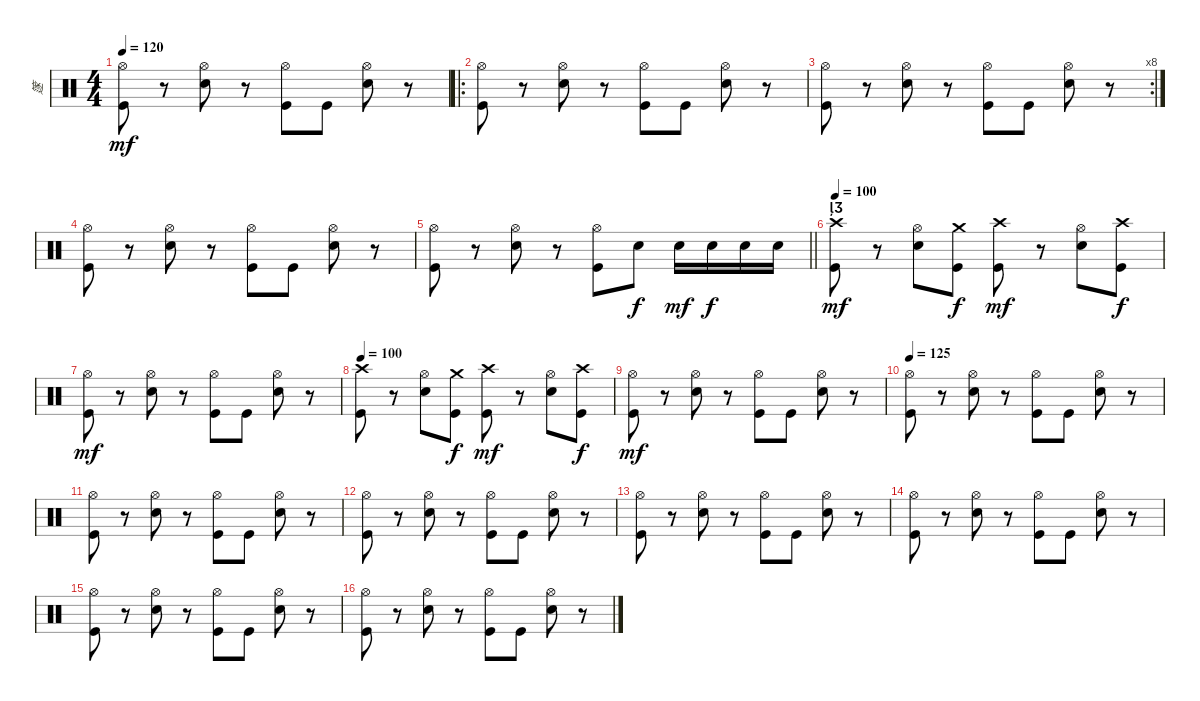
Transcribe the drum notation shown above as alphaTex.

\track ("篴" "篴") {instrument percussion}
\staff {score}
\articulation defaults
\ts (4 4)
\tempo 120
\clef neutral
\ks c
("Hi-Hat (open)" "Kick (hit)").8{dy mf} r.8 ("Hi-Hat (open)" "Snare (hit) 2").8 r.8 ("Hi-Hat (open)" "Kick (hit)").8 "Kick (hit)".8 ("Hi-Hat (open)" "Snare (hit) 2").8 r.8 |
\ro
("Hi-Hat (open)" "Kick (hit)").8 r.8 ("Hi-Hat (open)" "Snare (hit) 2").8 r.8 ("Hi-Hat (open)" "Kick (hit)").8 "Kick (hit)".8 ("Hi-Hat (open)" "Snare (hit) 2").8 r.8 |
\rc 8
("Hi-Hat (open)" "Kick (hit)").8 r.8 ("Hi-Hat (open)" "Snare (hit) 2").8 r.8 ("Hi-Hat (open)" "Kick (hit)").8 "Kick (hit)".8 ("Hi-Hat (open)" "Snare (hit) 2").8 r.8 |
("Hi-Hat (open)" "Kick (hit)").8 r.8 ("Hi-Hat (open)" "Snare (hit) 2").8 r.8 ("Hi-Hat (open)" "Kick (hit)").8 "Kick (hit)".8 ("Hi-Hat (open)" "Snare (hit) 2").8 r.8 |
\barLineRight lightlight
("Hi-Hat (open)" "Kick (hit)").8 r.8 ("Hi-Hat (open)" "Snare (hit) 2").8 r.8 ("Hi-Hat (open)" "Kick (hit)").8 "Snare (hit) 2".8{dy f} "Snare (hit) 2".16{dy mf} "Snare (hit) 2".16{dy f} "Snare (hit) 2".16 "Snare (hit) 2".16 |
\section ("" "")
\tempo 80
\tempo 100
("Crash high (hit)" "Kick (hit)").8{dy mf} r.8 ("Hi-Hat (open)" "Snare (hit) 2").8 ("Crash medium (hit)" "Kick (hit)").8{dy f} ("Crash high (hit)" "Kick (hit)").8{dy mf} r.8 ("Hi-Hat (open)" "Snare (hit) 2").8 ("Crash high (hit)" "Kick (hit)").8{dy f} |
("Hi-Hat (open)" "Kick (hit)").8{dy mf} r.8 ("Hi-Hat (open)" "Snare (hit) 2").8 r.8 ("Hi-Hat (open)" "Kick (hit)").8 "Kick (hit)".8 ("Hi-Hat (open)" "Snare (hit) 2").8 r.8 |
\tempo 80
\tempo 100
("Crash high (hit)" "Kick (hit)").8 r.8 ("Hi-Hat (open)" "Snare (hit) 2").8 ("Crash medium (hit)" "Kick (hit)").8{dy f} ("Crash high (hit)" "Kick (hit)").8{dy mf} r.8 ("Hi-Hat (open)" "Snare (hit) 2").8 ("Crash high (hit)" "Kick (hit)").8{dy f} |
("Hi-Hat (open)" "Kick (hit)").8{dy mf} r.8 ("Hi-Hat (open)" "Snare (hit) 2").8 r.8 ("Hi-Hat (open)" "Kick (hit)").8 "Kick (hit)".8 ("Hi-Hat (open)" "Snare (hit) 2").8 r.8 |
\tempo 125
("Hi-Hat (open)" "Kick (hit)").8 r.8 ("Hi-Hat (open)" "Snare (hit) 2").8 r.8 ("Hi-Hat (open)" "Kick (hit)").8 "Kick (hit)".8 ("Hi-Hat (open)" "Snare (hit) 2").8 r.8 |
("Hi-Hat (open)" "Kick (hit)").8 r.8 ("Hi-Hat (open)" "Snare (hit) 2").8 r.8 ("Hi-Hat (open)" "Kick (hit)").8 "Kick (hit)".8 ("Hi-Hat (open)" "Snare (hit) 2").8 r.8 |
("Hi-Hat (open)" "Kick (hit)").8 r.8 ("Hi-Hat (open)" "Snare (hit) 2").8 r.8 ("Hi-Hat (open)" "Kick (hit)").8 "Kick (hit)".8 ("Hi-Hat (open)" "Snare (hit) 2").8 r.8 |
("Hi-Hat (open)" "Kick (hit)").8 r.8 ("Hi-Hat (open)" "Snare (hit) 2").8 r.8 ("Hi-Hat (open)" "Kick (hit)").8 "Kick (hit)".8 ("Hi-Hat (open)" "Snare (hit) 2").8 r.8 |
("Hi-Hat (open)" "Kick (hit)").8 r.8 ("Hi-Hat (open)" "Snare (hit) 2").8 r.8 ("Hi-Hat (open)" "Kick (hit)").8 "Kick (hit)".8 ("Hi-Hat (open)" "Snare (hit) 2").8 r.8 |
("Hi-Hat (open)" "Kick (hit)").8 r.8 ("Hi-Hat (open)" "Snare (hit) 2").8 r.8 ("Hi-Hat (open)" "Kick (hit)").8 "Kick (hit)".8 ("Hi-Hat (open)" "Snare (hit) 2").8 r.8 |
("Hi-Hat (open)" "Kick (hit)").8 r.8 ("Hi-Hat (open)" "Snare (hit) 2").8 r.8 ("Hi-Hat (open)" "Kick (hit)").8 "Kick (hit)".8 ("Hi-Hat (open)" "Snare (hit) 2").8 r.8
